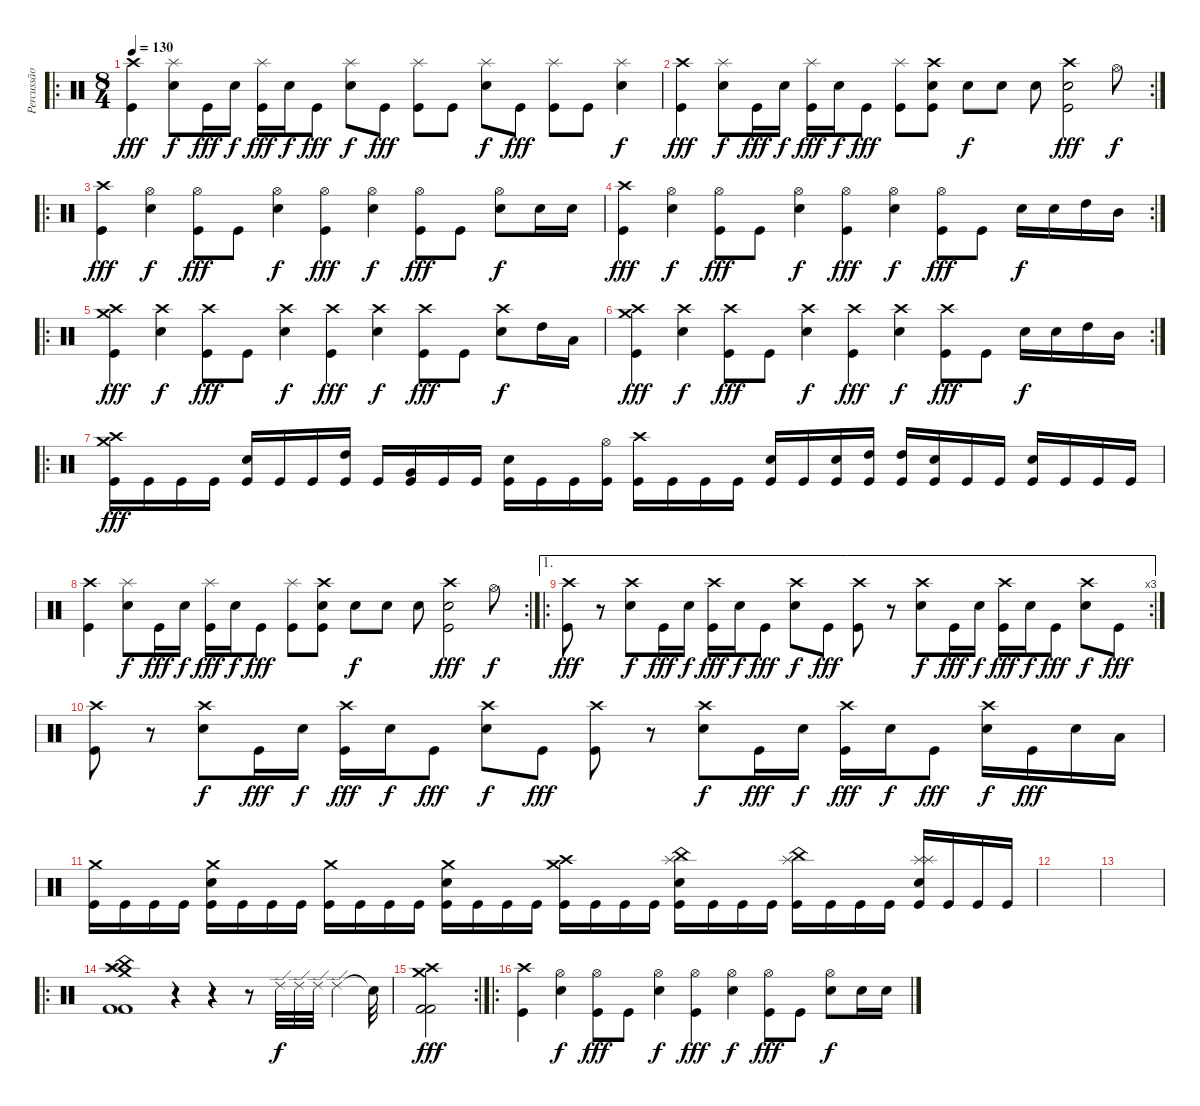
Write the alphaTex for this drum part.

\track ("Percussão" "Percussão") {instrument percussion}
\staff {score}
\articulation defaults
\ro
\ts (8 4)
\tempo 130
\clef neutral
\ks c
("Crash high (hit)" "Kick (hit)").4{dy fff} ("Splash (hit)" "Electric Snare (hit)").8{dy f} "Kick (hit)".16{dy fff} "Electric Snare (hit)".16{dy f} ("Splash (hit)" "Kick (hit)").16{dy fff} "Electric Snare (hit)".16{dy f} "Kick (hit)".8{dy fff} ("Splash (hit)" "Electric Snare (hit)").8{dy f} "Kick (hit)".8{dy fff} ("Splash (hit)" "Kick (hit)").8 "Kick (hit)".8 ("Splash (hit)" "Electric Snare (hit)").8{dy f} "Kick (hit)".8{dy fff} ("Splash (hit)" "Kick (hit)").8 "Kick (hit)".8 ("Splash (hit)" "Electric Snare (hit)").4{dy f} |
\rc 2
("Crash high (hit)" "Kick (hit)").4{dy fff} ("Splash (hit)" "Electric Snare (hit)").8{dy f} "Kick (hit)".16{dy fff} "Electric Snare (hit)".16{dy f} ("Splash (hit)" "Kick (hit)").16{dy fff} "Electric Snare (hit)".16{dy f} "Kick (hit)".8{dy fff} ("Splash (hit)" "Kick (hit)").8 ("Crash high (hit)" "Electric Snare (hit)" "Kick (hit)").8 "Electric Snare (hit)".8{dy f} "Electric Snare (hit)".8 "Electric Snare (hit)".8 ("Crash high (hit)" "Electric Snare (hit)" "Kick (hit)").2{dy fff} "Hi-Hat (open)".8{dy f} |
\ro
("Crash high (hit)" "Kick (hit)").4{dy fff} ("Hi-Hat (open)" "Electric Snare (hit)").4{dy f} ("Hi-Hat (open)" "Kick (hit)").8{dy fff} "Kick (hit)".8 ("Hi-Hat (open)" "Electric Snare (hit)").4{dy f} ("Hi-Hat (open)" "Kick (hit)").4{dy fff} ("Hi-Hat (open)" "Electric Snare (hit)").4{dy f} ("Hi-Hat (open)" "Kick (hit)").8{dy fff} "Kick (hit)".8 ("Hi-Hat (open)" "Electric Snare (hit)").8{dy f} "Electric Snare (hit)".16 "Electric Snare (hit)".16 |
\rc 2
("Crash high (hit)" "Kick (hit)").4{dy fff} ("Hi-Hat (open)" "Electric Snare (hit)").4{dy f} ("Hi-Hat (open)" "Kick (hit)").8{dy fff} "Kick (hit)".8 ("Hi-Hat (open)" "Electric Snare (hit)").4{dy f} ("Hi-Hat (open)" "Kick (hit)").4{dy fff} ("Hi-Hat (open)" "Electric Snare (hit)").4{dy f} ("Hi-Hat (open)" "Kick (hit)").8{dy fff} "Kick (hit)".8 "Electric Snare (hit)".16{dy f} "Electric Snare (hit)".16 "High Tom (hit)".16 "Mid Tom (hit)".16 |
\ro
("Crash high (hit)" "Crash medium (hit)" "Kick (hit)").4{dy fff} ("Crash high (hit)" "Electric Snare (hit)").4{dy f} ("Crash high (hit)" "Kick (hit)").8{dy fff} "Kick (hit)".8 ("Crash high (hit)" "Electric Snare (hit)").4{dy f} ("Crash high (hit)" "Kick (hit)").4{dy fff} ("Crash high (hit)" "Electric Snare (hit)").4{dy f} ("Crash high (hit)" "Kick (hit)").8{dy fff} "Kick (hit)".8 ("Crash high (hit)" "Electric Snare (hit)").8{dy f} "High Tom (hit)".16 "Low Tom (hit)".16 |
\rc 2
("Crash high (hit)" "Crash medium (hit)" "Kick (hit)").4{dy fff} ("Crash high (hit)" "Electric Snare (hit)").4{dy f} ("Crash high (hit)" "Kick (hit)").8{dy fff} "Kick (hit)".8 ("Crash high (hit)" "Electric Snare (hit)").4{dy f} ("Crash high (hit)" "Kick (hit)").4{dy fff} ("Crash high (hit)" "Electric Snare (hit)").4{dy f} ("Crash high (hit)" "Kick (hit)").8{dy fff} "Kick (hit)".8 "Electric Snare (hit)".16{dy f} "Electric Snare (hit)".16 "High Tom (hit)".16 "Mid Tom (hit)".16 |
\ro
("Crash high (hit)" "Kick (hit)" "Crash medium (hit)").16{dy fff} "Kick (hit)".16 "Kick (hit)".16 "Kick (hit)".16 ("Electric Snare (hit)" "Kick (hit)").16 "Kick (hit)".16 "Kick (hit)".16 ("High Tom (hit)" "Kick (hit)").16 "Kick (hit)".16 ("Very Low Tom (hit)" "Kick (hit)").16 "Kick (hit)".16 "Kick (hit)".16 ("Electric Snare (hit)" "Kick (hit)").16 "Kick (hit)".16 "Kick (hit)".16 ("Hi-Hat (open)" "Kick (hit)").16 ("Crash high (hit)" "Kick (hit)").16 "Kick (hit)".16 "Kick (hit)".16 "Kick (hit)".16 ("Electric Snare (hit)" "Kick (hit)").16 "Kick (hit)".16 ("Electric Snare (hit)" "Kick (hit)").16 ("High Tom (hit)" "Kick (hit)").16 ("High Tom (hit)" "Kick (hit)").16 ("Electric Snare (hit)" "Kick (hit)").16 "Kick (hit)".16 "Kick (hit)".16 ("Electric Snare (hit)" "Kick (hit)").16 "Kick (hit)".16 "Kick (hit)".16 "Kick (hit)".16 |
\rc 2
("Crash high (hit)" "Kick (hit)").4 ("Splash (hit)" "Electric Snare (hit)").8{dy f} "Kick (hit)".16{dy fff} "Electric Snare (hit)".16{dy f} ("Splash (hit)" "Kick (hit)").16{dy fff} "Electric Snare (hit)".16{dy f} "Kick (hit)".8{dy fff} ("Splash (hit)" "Kick (hit)").8 ("Crash high (hit)" "Electric Snare (hit)" "Kick (hit)").8 "Electric Snare (hit)".8{dy f} "Electric Snare (hit)".8 "Electric Snare (hit)".8 ("Crash high (hit)" "Electric Snare (hit)" "Kick (hit)").2{dy fff} "Hi-Hat (open)".8{dy f} |
\ae 1
\ro
\rc 3
("Crash high (hit)" "Kick (hit)").8{dy fff} r.8 ("Crash high (hit)" "Electric Snare (hit)").8{dy f} "Kick (hit)".16{dy fff} "Electric Snare (hit)".16{dy f} ("Crash high (hit)" "Kick (hit)").16{dy fff} "Electric Snare (hit)".16{dy f} "Kick (hit)".8{dy fff} ("Crash high (hit)" "Electric Snare (hit)").8{dy f} "Kick (hit)".8{dy fff} ("Crash high (hit)" "Kick (hit)").8 r.8 ("Crash high (hit)" "Electric Snare (hit)").8{dy f} "Kick (hit)".16{dy fff} "Electric Snare (hit)".16{dy f} ("Crash high (hit)" "Kick (hit)").16{dy fff} "Electric Snare (hit)".16{dy f} "Kick (hit)".8{dy fff} ("Crash high (hit)" "Electric Snare (hit)").8{dy f} "Kick (hit)".8{dy fff} |
("Crash high (hit)" "Kick (hit)").8 r.8 ("Crash high (hit)" "Electric Snare (hit)").8{dy f} "Kick (hit)".16{dy fff} "Electric Snare (hit)".16{dy f} ("Crash high (hit)" "Kick (hit)").16{dy fff} "Electric Snare (hit)".16{dy f} "Kick (hit)".8{dy fff} ("Crash high (hit)" "Electric Snare (hit)").8{dy f} "Kick (hit)".8{dy fff} ("Crash high (hit)" "Kick (hit)").8 r.8 ("Crash high (hit)" "Electric Snare (hit)").8{dy f} "Kick (hit)".16{dy fff} "Electric Snare (hit)".16{dy f} ("Crash high (hit)" "Kick (hit)").16{dy fff} "Electric Snare (hit)".16{dy f} "Kick (hit)".8{dy fff} ("Crash high (hit)" "Electric Snare (hit)").16{dy f} "Kick (hit)".16{dy fff} "Electric Snare (hit)".16 "Low Tom (hit)".16 |
("Crash medium (hit)" "Kick (hit)").16 "Kick (hit)".16 "Kick (hit)".16 "Kick (hit)".16 ("Crash medium (hit)" "Kick (hit)" "Electric Snare (hit)").16 "Kick (hit)".16 "Kick (hit)".16 "Kick (hit)".16 ("Crash medium (hit)" "Kick (hit)").16 "Kick (hit)".16 "Kick (hit)".16 "Kick (hit)".16 ("Crash medium (hit)" "Kick (hit)" "Electric Snare (hit)").16 "Kick (hit)".16 "Kick (hit)".16 "Kick (hit)".16 ("Crash high (hit)" "Kick (hit)" "Crash medium (hit)").16 "Kick (hit)".16 "Kick (hit)".16 "Kick (hit)".16 ("Splash (hit)" "Kick (hit)" "China (hit)" "Electric Snare (hit)").16 "Kick (hit)".16 "Kick (hit)".16 "Kick (hit)".16 ("Splash (hit)" "Kick (hit)" "China (hit)").16 "Kick (hit)".16 "Kick (hit)".16 "Kick (hit)".16 ("Splash (hit)" "Kick (hit)" "Splash (hit)" "Electric Snare (hit)").16 "Kick (hit)".16 "Kick (hit)".16 "Kick (hit)".16 |
|
|
\ro
("Splash (hit)" "Crash medium (hit)" "Crash high (hit)" "China (hit)" "Kick (hit) 2" "Kick (hit) 2").1 r.4 r.4 r.8 "Ride (edge) 2".32{dy f} "Ride (edge) 2".32 "Ride (edge) 2".32 "Ride (edge) 2".4 "Snare (hit)"{t}.32 |
\rc 2
("Crash medium (hit)" "Crash high (hit)" "Kick (hit) 2" "Kick (hit) 2").2{dy fff} |
\ro
("Crash high (hit)" "Kick (hit)").4 ("Hi-Hat (open)" "Electric Snare (hit)").4{dy f} ("Hi-Hat (open)" "Kick (hit)").8{dy fff} "Kick (hit)".8 ("Hi-Hat (open)" "Electric Snare (hit)").4{dy f} ("Hi-Hat (open)" "Kick (hit)").4{dy fff} ("Hi-Hat (open)" "Electric Snare (hit)").4{dy f} ("Hi-Hat (open)" "Kick (hit)").8{dy fff} "Kick (hit)".8 ("Hi-Hat (open)" "Electric Snare (hit)").8{dy f} "Electric Snare (hit)".16 "Electric Snare (hit)".16
